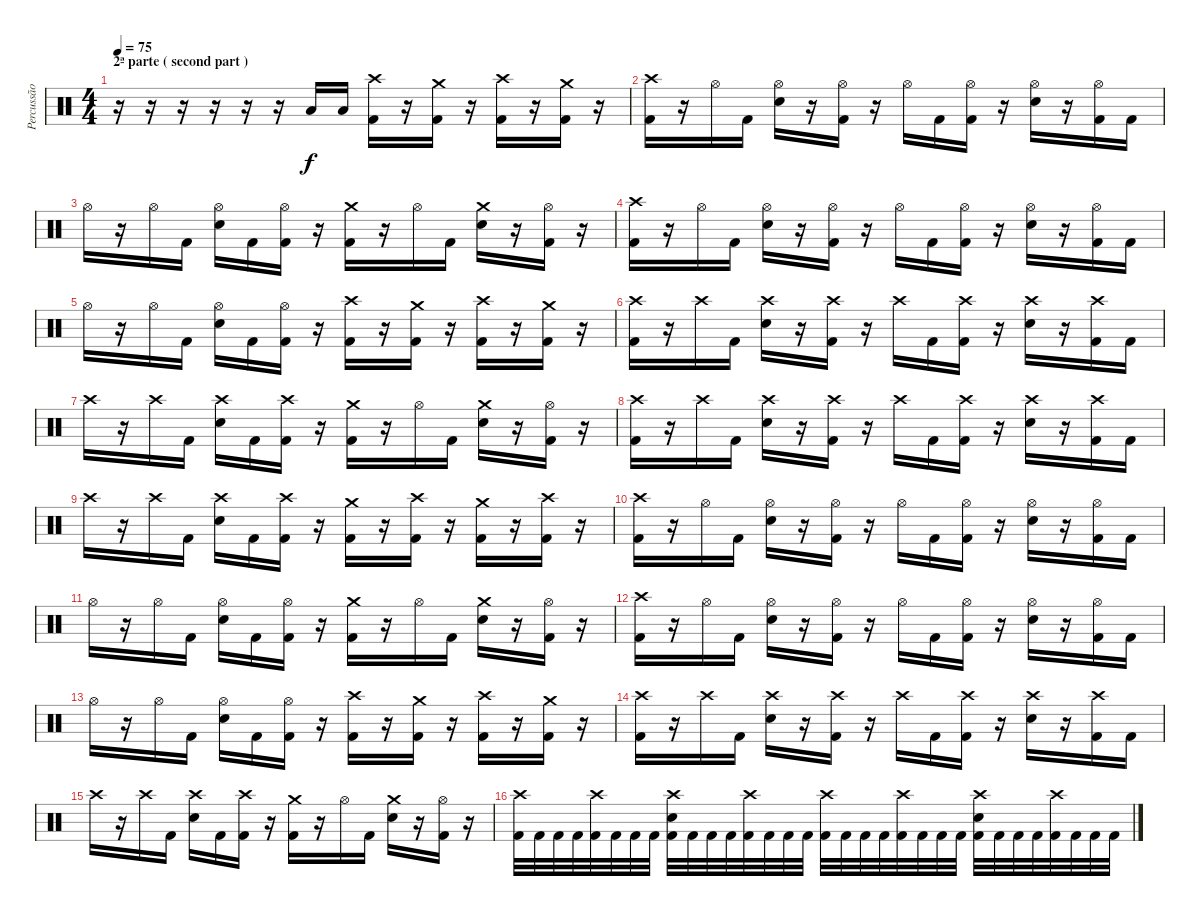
\track ("Percussão" "Percussão") {instrument percussion}
\staff {score}
\articulation defaults
\ts (4 4)
\section ("" "2ª parte ( second part )")
\tempo 75
\clef neutral
\ks c
r.16{dy f} r.16 r.16 r.16 r.16 r.16 "Low Tom (hit)".16 "Low Tom (hit)".16 ("Crash high (hit)" "Kick (hit) 2").16 r.16 ("Crash medium (hit)" "Kick (hit) 2").16 r.16 ("Crash high (hit)" "Kick (hit) 2").16 r.16 ("Crash medium (hit)" "Kick (hit) 2").16 r.16 |
("Crash high (hit)" "Kick (hit) 2").16 r.16 "Hi-Hat (open)".16 "Kick (hit) 2".16 ("Hi-Hat (open)" "Electric Snare (hit)").16 r.16 ("Hi-Hat (open)" "Kick (hit) 2").16 r.16 "Hi-Hat (open)".16 "Kick (hit) 2".16 ("Hi-Hat (open)" "Kick (hit) 2").16 r.16 ("Hi-Hat (open)" "Electric Snare (hit)").16 r.16 ("Hi-Hat (open)" "Kick (hit) 2").16 "Kick (hit) 2".16 |
"Hi-Hat (open)".16 r.16 "Hi-Hat (open)".16 "Kick (hit) 2".16 ("Hi-Hat (open)" "Electric Snare (hit)").16 "Kick (hit) 2".16 ("Hi-Hat (open)" "Kick (hit) 2").16 r.16 ("Crash medium (hit)" "Kick (hit) 2").16 r.16 "Hi-Hat (open)".16 "Kick (hit) 2".16 ("Crash medium (hit)" "Electric Snare (hit)").16 r.16 ("Hi-Hat (open)" "Kick (hit) 2").16 r.16 |
("Crash high (hit)" "Kick (hit) 2").16 r.16 "Hi-Hat (open)".16 "Kick (hit) 2".16 ("Hi-Hat (open)" "Electric Snare (hit)").16 r.16 ("Hi-Hat (open)" "Kick (hit) 2").16 r.16 "Hi-Hat (open)".16 "Kick (hit) 2".16 ("Hi-Hat (open)" "Kick (hit) 2").16 r.16 ("Hi-Hat (open)" "Electric Snare (hit)").16 r.16 ("Hi-Hat (open)" "Kick (hit) 2").16 "Kick (hit) 2".16 |
"Hi-Hat (open)".16 r.16 "Hi-Hat (open)".16 "Kick (hit) 2".16 ("Hi-Hat (open)" "Electric Snare (hit)").16 "Kick (hit) 2".16 ("Hi-Hat (open)" "Kick (hit) 2").16 r.16 ("Crash high (hit)" "Kick (hit) 2").16 r.16 ("Crash medium (hit)" "Kick (hit) 2").16 r.16 ("Crash high (hit)" "Kick (hit) 2").16 r.16 ("Crash medium (hit)" "Kick (hit) 2").16 r.16 |
("Crash high (hit)" "Kick (hit) 2").16 r.16 "Crash high (hit)".16 "Kick (hit) 2".16 ("Crash high (hit)" "Electric Snare (hit)").16 r.16 ("Crash high (hit)" "Kick (hit) 2").16 r.16 "Crash high (hit)".16 "Kick (hit) 2".16 ("Crash high (hit)" "Kick (hit) 2").16 r.16 ("Crash high (hit)" "Electric Snare (hit)").16 r.16 ("Crash high (hit)" "Kick (hit) 2").16 "Kick (hit) 2".16 |
"Crash high (hit)".16 r.16 "Crash high (hit)".16 "Kick (hit) 2".16 ("Crash high (hit)" "Electric Snare (hit)").16 "Kick (hit) 2".16 ("Crash high (hit)" "Kick (hit) 2").16 r.16 ("Crash medium (hit)" "Kick (hit) 2").16 r.16 "Hi-Hat (open)".16 "Kick (hit) 2".16 ("Crash medium (hit)" "Electric Snare (hit)").16 r.16 ("Hi-Hat (open)" "Kick (hit) 2").16 r.16 |
("Crash high (hit)" "Kick (hit) 2").16 r.16 "Crash high (hit)".16 "Kick (hit) 2".16 ("Crash high (hit)" "Electric Snare (hit)").16 r.16 ("Crash high (hit)" "Kick (hit) 2").16 r.16 "Crash high (hit)".16 "Kick (hit) 2".16 ("Crash high (hit)" "Kick (hit) 2").16 r.16 ("Crash high (hit)" "Electric Snare (hit)").16 r.16 ("Crash high (hit)" "Kick (hit) 2").16 "Kick (hit) 2".16 |
"Crash high (hit)".16 r.16 "Crash high (hit)".16 "Kick (hit) 2".16 ("Crash high (hit)" "Electric Snare (hit)").16 "Kick (hit) 2".16 ("Crash high (hit)" "Kick (hit) 2").16 r.16 ("Crash medium (hit)" "Kick (hit) 2").16 r.16 ("Crash high (hit)" "Kick (hit) 2").16 r.16 ("Crash medium (hit)" "Kick (hit) 2").16 r.16 ("Crash high (hit)" "Kick (hit) 2").16 r.16 |
("Crash high (hit)" "Kick (hit) 2").16 r.16 "Hi-Hat (open)".16 "Kick (hit) 2".16 ("Hi-Hat (open)" "Electric Snare (hit)").16 r.16 ("Hi-Hat (open)" "Kick (hit) 2").16 r.16 "Hi-Hat (open)".16 "Kick (hit) 2".16 ("Hi-Hat (open)" "Kick (hit) 2").16 r.16 ("Hi-Hat (open)" "Electric Snare (hit)").16 r.16 ("Hi-Hat (open)" "Kick (hit) 2").16 "Kick (hit) 2".16 |
"Hi-Hat (open)".16 r.16 "Hi-Hat (open)".16 "Kick (hit) 2".16 ("Hi-Hat (open)" "Electric Snare (hit)").16 "Kick (hit) 2".16 ("Hi-Hat (open)" "Kick (hit) 2").16 r.16 ("Crash medium (hit)" "Kick (hit) 2").16 r.16 "Hi-Hat (open)".16 "Kick (hit) 2".16 ("Crash medium (hit)" "Electric Snare (hit)").16 r.16 ("Hi-Hat (open)" "Kick (hit) 2").16 r.16 |
("Crash high (hit)" "Kick (hit) 2").16 r.16 "Hi-Hat (open)".16 "Kick (hit) 2".16 ("Hi-Hat (open)" "Electric Snare (hit)").16 r.16 ("Hi-Hat (open)" "Kick (hit) 2").16 r.16 "Hi-Hat (open)".16 "Kick (hit) 2".16 ("Hi-Hat (open)" "Kick (hit) 2").16 r.16 ("Hi-Hat (open)" "Electric Snare (hit)").16 r.16 ("Hi-Hat (open)" "Kick (hit) 2").16 "Kick (hit) 2".16 |
"Hi-Hat (open)".16 r.16 "Hi-Hat (open)".16 "Kick (hit) 2".16 ("Hi-Hat (open)" "Electric Snare (hit)").16 "Kick (hit) 2".16 ("Hi-Hat (open)" "Kick (hit) 2").16 r.16 ("Crash high (hit)" "Kick (hit) 2").16 r.16 ("Crash medium (hit)" "Kick (hit) 2").16 r.16 ("Crash high (hit)" "Kick (hit) 2").16 r.16 ("Crash medium (hit)" "Kick (hit) 2").16 r.16 |
("Crash high (hit)" "Kick (hit) 2").16 r.16 "Crash high (hit)".16 "Kick (hit) 2".16 ("Crash high (hit)" "Electric Snare (hit)").16 r.16 ("Crash high (hit)" "Kick (hit) 2").16 r.16 "Crash high (hit)".16 "Kick (hit) 2".16 ("Crash high (hit)" "Kick (hit) 2").16 r.16 ("Crash high (hit)" "Electric Snare (hit)").16 r.16 ("Crash high (hit)" "Kick (hit) 2").16 "Kick (hit) 2".16 |
"Crash high (hit)".16 r.16 "Crash high (hit)".16 "Kick (hit) 2".16 ("Crash high (hit)" "Electric Snare (hit)").16 "Kick (hit) 2".16 ("Crash high (hit)" "Kick (hit) 2").16 r.16 ("Crash medium (hit)" "Kick (hit) 2").16 r.16 "Hi-Hat (open)".16 "Kick (hit) 2".16 ("Crash medium (hit)" "Electric Snare (hit)").16 r.16 ("Hi-Hat (open)" "Kick (hit) 2").16 r.16 |
("Crash high (hit)" "Kick (hit) 2").32 "Kick (hit) 2".32 "Kick (hit) 2".32 "Kick (hit) 2".32 ("Crash high (hit)" "Kick (hit) 2").32 "Kick (hit) 2".32 "Kick (hit) 2".32 "Kick (hit) 2".32 ("Crash high (hit)" "Electric Snare (hit)" "Kick (hit) 2").32 "Kick (hit) 2".32 "Kick (hit) 2".32 "Kick (hit) 2".32 ("Crash high (hit)" "Kick (hit) 2").32 "Kick (hit) 2".32 "Kick (hit) 2".32 "Kick (hit) 2".32 ("Crash high (hit)" "Kick (hit) 2").32 "Kick (hit) 2".32 "Kick (hit) 2".32 "Kick (hit) 2".32 ("Crash high (hit)" "Kick (hit) 2").32 "Kick (hit) 2".32 "Kick (hit) 2".32 "Kick (hit) 2".32 ("Crash high (hit)" "Electric Snare (hit)" "Kick (hit) 2").32 "Kick (hit) 2".32 "Kick (hit) 2".32 "Kick (hit) 2".32 ("Crash high (hit)" "Kick (hit) 2").32 "Kick (hit) 2".32 "Kick (hit) 2".32 "Kick (hit) 2".32
